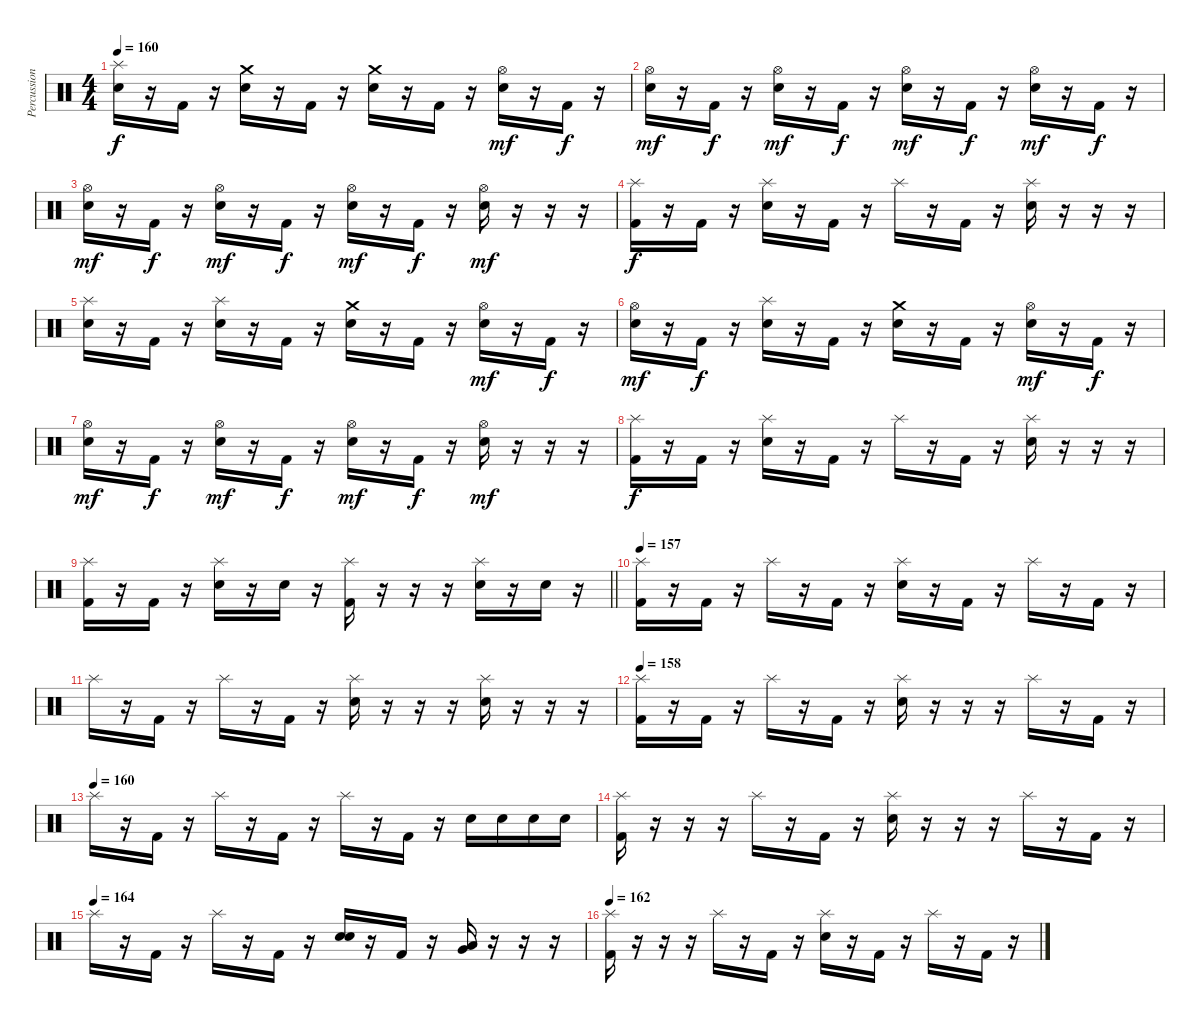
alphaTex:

\track ("Percussion" "Percussion") {instrument percussion}
\staff {score}
\articulation defaults
\ts (4 4)
\section ("" "")
\tempo 160
\clef neutral
\ks c
("Splash (hit)" "Electric Snare (hit)").16{dy f} r.16 "Kick (hit) 2".16 r.16 ("Crash medium (hit)" "Electric Snare (hit)").16 r.16 "Kick (hit) 2".16 r.16 ("Crash medium (hit)" "Electric Snare (hit)").16 r.16 "Kick (hit) 2".16 r.16 ("Hi-Hat (open)" "Electric Snare (hit)").16{dy mf} r.16 "Kick (hit) 2".16{dy f} r.16 |
("Hi-Hat (open)" "Electric Snare (hit)").16{dy mf} r.16 "Kick (hit) 2".16{dy f} r.16 ("Hi-Hat (open)" "Electric Snare (hit)").16{dy mf} r.16 "Kick (hit) 2".16{dy f} r.16 ("Hi-Hat (open)" "Electric Snare (hit)").16{dy mf} r.16 "Kick (hit) 2".16{dy f} r.16 ("Hi-Hat (open)" "Electric Snare (hit)").16{dy mf} r.16 "Kick (hit) 2".16{dy f} r.16 |
("Hi-Hat (open)" "Electric Snare (hit)").16{dy mf} r.16 "Kick (hit) 2".16{dy f} r.16 ("Hi-Hat (open)" "Electric Snare (hit)").16{dy mf} r.16 "Kick (hit) 2".16{dy f} r.16 ("Hi-Hat (open)" "Electric Snare (hit)").16{dy mf} r.16 "Kick (hit) 2".16{dy f} r.16 ("Hi-Hat (open)" "Electric Snare (hit)").16{dy mf} r.16 r.16 r.16 |
("Splash (hit)" "Kick (hit) 2").16{dy f} r.16 "Kick (hit) 2".16 r.16 ("Splash (hit)" "Electric Snare (hit)").16 r.16 "Kick (hit) 2".16 r.16 "Splash (hit)".16 r.16 "Kick (hit) 2".16 r.16 ("Splash (hit)" "Electric Snare (hit)").16 r.16 r.16 r.16 |
("Splash (hit)" "Electric Snare (hit)").16 r.16 "Kick (hit) 2".16 r.16 ("Splash (hit)" "Electric Snare (hit)").16 r.16 "Kick (hit) 2".16 r.16 ("Crash medium (hit)" "Electric Snare (hit)").16 r.16 "Kick (hit) 2".16 r.16 ("Hi-Hat (open)" "Electric Snare (hit)").16{dy mf} r.16 "Kick (hit) 2".16{dy f} r.16 |
("Hi-Hat (open)" "Electric Snare (hit)").16{dy mf} r.16 "Kick (hit) 2".16{dy f} r.16 ("Splash (hit)" "Electric Snare (hit)").16 r.16 "Kick (hit) 2".16 r.16 ("Crash medium (hit)" "Electric Snare (hit)").16 r.16 "Kick (hit) 2".16 r.16 ("Hi-Hat (open)" "Electric Snare (hit)").16{dy mf} r.16 "Kick (hit) 2".16{dy f} r.16 |
("Hi-Hat (open)" "Electric Snare (hit)").16{dy mf} r.16 "Kick (hit) 2".16{dy f} r.16 ("Hi-Hat (open)" "Electric Snare (hit)").16{dy mf} r.16 "Kick (hit) 2".16{dy f} r.16 ("Hi-Hat (open)" "Electric Snare (hit)").16{dy mf} r.16 "Kick (hit) 2".16{dy f} r.16 ("Hi-Hat (open)" "Electric Snare (hit)").16{dy mf} r.16 r.16 r.16 |
("Splash (hit)" "Kick (hit) 2").16{dy f} r.16 "Kick (hit) 2".16 r.16 ("Splash (hit)" "Electric Snare (hit)").16 r.16 "Kick (hit) 2".16 r.16 "Splash (hit)".16 r.16 "Kick (hit) 2".16 r.16 ("Splash (hit)" "Electric Snare (hit)").16 r.16 r.16 r.16 |
\barLineRight lightlight
("Splash (hit)" "Kick (hit) 2").16 r.16 "Kick (hit) 2".16 r.16 ("Splash (hit)" "Electric Snare (hit)").16 r.16 "Electric Snare (hit)".16 r.16 ("Splash (hit)" "Kick (hit) 2").16 r.16 r.16 r.16 ("Splash (hit)" "Electric Snare (hit)").16 r.16 "Electric Snare (hit)".16 r.16 |
\section ("" "")
\tempo 157
("Splash (hit)" "Kick (hit) 2").16 r.16 "Kick (hit) 2".16 r.16 "Splash (hit)".16 r.16 "Kick (hit) 2".16 r.16 ("Splash (hit)" "Electric Snare (hit)").16 r.16 "Kick (hit) 2".16 r.16 "Splash (hit)".16 r.16 "Kick (hit) 2".16 r.16 |
"Splash (hit)".16 r.16 "Kick (hit) 2".16 r.16 "Splash (hit)".16 r.16 "Kick (hit) 2".16 r.16 ("Splash (hit)" "Electric Snare (hit)").16 r.16 r.16 r.16 ("Splash (hit)" "Electric Snare (hit)").16 r.16 r.16 r.16 |
\tempo 158
("Splash (hit)" "Kick (hit) 2").16 r.16 "Kick (hit) 2".16 r.16 "Splash (hit)".16 r.16 "Kick (hit) 2".16 r.16 ("Splash (hit)" "Electric Snare (hit)").16 r.16 r.16 r.16 "Splash (hit)".16 r.16 "Kick (hit) 2".16 r.16 |
\tempo (160)
"Splash (hit)".16 r.16 "Kick (hit) 2".16 r.16 "Splash (hit)".16 r.16 "Kick (hit) 2".16 r.16 "Splash (hit)".16 r.16 "Kick (hit) 2".16 r.16 "Electric Snare (hit)".16 "Electric Snare (hit)".16 "Electric Snare (hit)".16 "Electric Snare (hit)".16 |
("Splash (hit)" "Kick (hit) 2").16 r.16 r.16 r.16 "Splash (hit)".16 r.16 "Kick (hit) 2".16 r.16 ("Splash (hit)" "Electric Snare (hit)").16 r.16 r.16 r.16 "Splash (hit)".16 r.16 "Kick (hit) 2".16 r.16 |
\tempo (164)
"Splash (hit)".16 r.16 "Kick (hit) 2".16 r.16 "Splash (hit)".16 r.16 "Kick (hit) 2".16 r.16 ("Electric Snare (hit)" "Electric Snare (hit)").16 r.16 "Kick (hit) 2".16 r.16 ("Very Low Tom (hit)" "Low Tom (hit)").16 r.16 r.16 r.16 |
\tempo 162
("Splash (hit)" "Kick (hit) 2").16 r.16 r.16 r.16 "Splash (hit)".16 r.16 "Kick (hit) 2".16 r.16 ("Splash (hit)" "Electric Snare (hit)").16 r.16 "Kick (hit) 2".16 r.16 "Splash (hit)".16 r.16 "Kick (hit) 2".16 r.16
